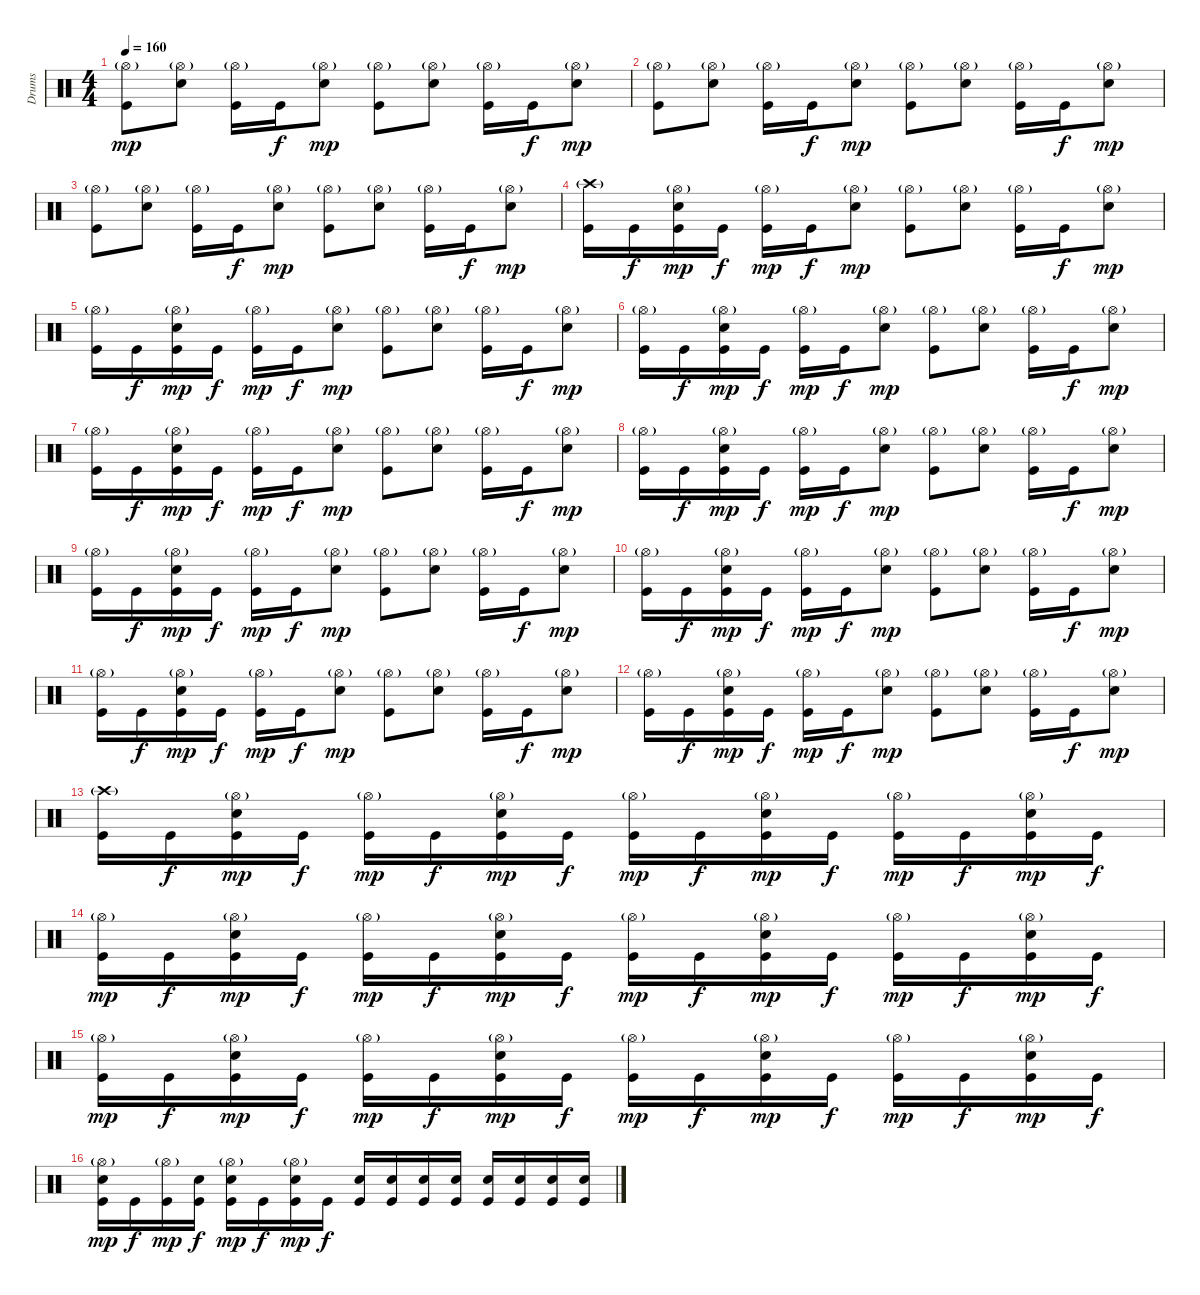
\track ("Drums" "Drums") {instrument percussion}
\staff {score}
\articulation defaults
\ts (4 4)
\tempo 160
\clef neutral
\ks c
("Hi-Hat (open)"{g} "Kick (hit)").8{dy mp} ("Hi-Hat (open)"{g} "Snare (hit) 2").8 ("Hi-Hat (open)"{g} "Kick (hit)").16 "Kick (hit)".16{dy f} ("Hi-Hat (open)"{g} "Snare (hit) 2").8{dy mp} ("Hi-Hat (open)"{g} "Kick (hit)").8 ("Hi-Hat (open)"{g} "Snare (hit) 2").8 ("Hi-Hat (open)"{g} "Kick (hit)").16 "Kick (hit)".16{dy f} ("Hi-Hat (open)"{g} "Snare (hit) 2").8{dy mp} |
("Hi-Hat (open)"{g} "Kick (hit)").8 ("Hi-Hat (open)"{g} "Snare (hit) 2").8 ("Hi-Hat (open)"{g} "Kick (hit)").16 "Kick (hit)".16{dy f} ("Hi-Hat (open)"{g} "Snare (hit) 2").8{dy mp} ("Hi-Hat (open)"{g} "Kick (hit)").8 ("Hi-Hat (open)"{g} "Snare (hit) 2").8 ("Hi-Hat (open)"{g} "Kick (hit)").16 "Kick (hit)".16{dy f} ("Hi-Hat (open)"{g} "Snare (hit) 2").8{dy mp} |
("Hi-Hat (open)"{g} "Kick (hit)").8 ("Hi-Hat (open)"{g} "Snare (hit) 2").8 ("Hi-Hat (open)"{g} "Kick (hit)").16 "Kick (hit)".16{dy f} ("Hi-Hat (open)"{g} "Snare (hit) 2").8{dy mp} ("Hi-Hat (open)"{g} "Kick (hit)").8 ("Hi-Hat (open)"{g} "Snare (hit) 2").8 ("Hi-Hat (open)"{g} "Kick (hit)").16 "Kick (hit)".16{dy f} ("Hi-Hat (open)"{g} "Snare (hit) 2").8{dy mp} |
("Crash high (hit)"{g} "Kick (hit)").16 "Kick (hit)".16{dy f} ("Hi-Hat (open)"{g} "Snare (hit) 2" "Kick (hit)").16{dy mp} "Kick (hit)".16{dy f} ("Hi-Hat (open)"{g} "Kick (hit)").16{dy mp} "Kick (hit)".16{dy f} ("Hi-Hat (open)"{g} "Snare (hit) 2").8{dy mp} ("Hi-Hat (open)"{g} "Kick (hit)").8 ("Hi-Hat (open)"{g} "Snare (hit) 2").8 ("Hi-Hat (open)"{g} "Kick (hit)").16 "Kick (hit)".16{dy f} ("Hi-Hat (open)"{g} "Snare (hit) 2").8{dy mp} |
("Hi-Hat (open)"{g} "Kick (hit)").16 "Kick (hit)".16{dy f} ("Hi-Hat (open)"{g} "Snare (hit) 2" "Kick (hit)").16{dy mp} "Kick (hit)".16{dy f} ("Hi-Hat (open)"{g} "Kick (hit)").16{dy mp} "Kick (hit)".16{dy f} ("Hi-Hat (open)"{g} "Snare (hit) 2").8{dy mp} ("Hi-Hat (open)"{g} "Kick (hit)").8 ("Hi-Hat (open)"{g} "Snare (hit) 2").8 ("Hi-Hat (open)"{g} "Kick (hit)").16 "Kick (hit)".16{dy f} ("Hi-Hat (open)"{g} "Snare (hit) 2").8{dy mp} |
("Hi-Hat (open)"{g} "Kick (hit)").16 "Kick (hit)".16{dy f} ("Hi-Hat (open)"{g} "Snare (hit) 2" "Kick (hit)").16{dy mp} "Kick (hit)".16{dy f} ("Hi-Hat (open)"{g} "Kick (hit)").16{dy mp} "Kick (hit)".16{dy f} ("Hi-Hat (open)"{g} "Snare (hit) 2").8{dy mp} ("Hi-Hat (open)"{g} "Kick (hit)").8 ("Hi-Hat (open)"{g} "Snare (hit) 2").8 ("Hi-Hat (open)"{g} "Kick (hit)").16 "Kick (hit)".16{dy f} ("Hi-Hat (open)"{g} "Snare (hit) 2").8{dy mp} |
("Hi-Hat (open)"{g} "Kick (hit)").16 "Kick (hit)".16{dy f} ("Hi-Hat (open)"{g} "Snare (hit) 2" "Kick (hit)").16{dy mp} "Kick (hit)".16{dy f} ("Hi-Hat (open)"{g} "Kick (hit)").16{dy mp} "Kick (hit)".16{dy f} ("Hi-Hat (open)"{g} "Snare (hit) 2").8{dy mp} ("Hi-Hat (open)"{g} "Kick (hit)").8 ("Hi-Hat (open)"{g} "Snare (hit) 2").8 ("Hi-Hat (open)"{g} "Kick (hit)").16 "Kick (hit)".16{dy f} ("Hi-Hat (open)"{g} "Snare (hit) 2").8{dy mp} |
("Hi-Hat (open)"{g} "Kick (hit)").16 "Kick (hit)".16{dy f} ("Hi-Hat (open)"{g} "Snare (hit) 2" "Kick (hit)").16{dy mp} "Kick (hit)".16{dy f} ("Hi-Hat (open)"{g} "Kick (hit)").16{dy mp} "Kick (hit)".16{dy f} ("Hi-Hat (open)"{g} "Snare (hit) 2").8{dy mp} ("Hi-Hat (open)"{g} "Kick (hit)").8 ("Hi-Hat (open)"{g} "Snare (hit) 2").8 ("Hi-Hat (open)"{g} "Kick (hit)").16 "Kick (hit)".16{dy f} ("Hi-Hat (open)"{g} "Snare (hit) 2").8{dy mp} |
("Hi-Hat (open)"{g} "Kick (hit)").16 "Kick (hit)".16{dy f} ("Hi-Hat (open)"{g} "Snare (hit) 2" "Kick (hit)").16{dy mp} "Kick (hit)".16{dy f} ("Hi-Hat (open)"{g} "Kick (hit)").16{dy mp} "Kick (hit)".16{dy f} ("Hi-Hat (open)"{g} "Snare (hit) 2").8{dy mp} ("Hi-Hat (open)"{g} "Kick (hit)").8 ("Hi-Hat (open)"{g} "Snare (hit) 2").8 ("Hi-Hat (open)"{g} "Kick (hit)").16 "Kick (hit)".16{dy f} ("Hi-Hat (open)"{g} "Snare (hit) 2").8{dy mp} |
("Hi-Hat (open)"{g} "Kick (hit)").16 "Kick (hit)".16{dy f} ("Hi-Hat (open)"{g} "Snare (hit) 2" "Kick (hit)").16{dy mp} "Kick (hit)".16{dy f} ("Hi-Hat (open)"{g} "Kick (hit)").16{dy mp} "Kick (hit)".16{dy f} ("Hi-Hat (open)"{g} "Snare (hit) 2").8{dy mp} ("Hi-Hat (open)"{g} "Kick (hit)").8 ("Hi-Hat (open)"{g} "Snare (hit) 2").8 ("Hi-Hat (open)"{g} "Kick (hit)").16 "Kick (hit)".16{dy f} ("Hi-Hat (open)"{g} "Snare (hit) 2").8{dy mp} |
("Hi-Hat (open)"{g} "Kick (hit)").16 "Kick (hit)".16{dy f} ("Hi-Hat (open)"{g} "Snare (hit) 2" "Kick (hit)").16{dy mp} "Kick (hit)".16{dy f} ("Hi-Hat (open)"{g} "Kick (hit)").16{dy mp} "Kick (hit)".16{dy f} ("Hi-Hat (open)"{g} "Snare (hit) 2").8{dy mp} ("Hi-Hat (open)"{g} "Kick (hit)").8 ("Hi-Hat (open)"{g} "Snare (hit) 2").8 ("Hi-Hat (open)"{g} "Kick (hit)").16 "Kick (hit)".16{dy f} ("Hi-Hat (open)"{g} "Snare (hit) 2").8{dy mp} |
("Hi-Hat (open)"{g} "Kick (hit)").16 "Kick (hit)".16{dy f} ("Hi-Hat (open)"{g} "Snare (hit) 2" "Kick (hit)").16{dy mp} "Kick (hit)".16{dy f} ("Hi-Hat (open)"{g} "Kick (hit)").16{dy mp} "Kick (hit)".16{dy f} ("Hi-Hat (open)"{g} "Snare (hit) 2").8{dy mp} ("Hi-Hat (open)"{g} "Kick (hit)").8 ("Hi-Hat (open)"{g} "Snare (hit) 2").8 ("Hi-Hat (open)"{g} "Kick (hit)").16 "Kick (hit)".16{dy f} ("Hi-Hat (open)"{g} "Snare (hit) 2").8{dy mp} |
("Crash high (hit)"{g} "Kick (hit)").16 "Kick (hit)".16{dy f} ("Hi-Hat (open)"{g} "Snare (hit) 2" "Kick (hit)").16{dy mp} "Kick (hit)".16{dy f} ("Hi-Hat (open)"{g} "Kick (hit)").16{dy mp} "Kick (hit)".16{dy f} ("Hi-Hat (open)"{g} "Snare (hit) 2" "Kick (hit)").16{dy mp} "Kick (hit)".16{dy f} ("Hi-Hat (open)"{g} "Kick (hit)").16{dy mp} "Kick (hit)".16{dy f} ("Hi-Hat (open)"{g} "Snare (hit) 2" "Kick (hit)").16{dy mp} "Kick (hit)".16{dy f} ("Hi-Hat (open)"{g} "Kick (hit)").16{dy mp} "Kick (hit)".16{dy f} ("Hi-Hat (open)"{g} "Snare (hit) 2" "Kick (hit)").16{dy mp} "Kick (hit)".16{dy f} |
("Hi-Hat (open)"{g} "Kick (hit)").16{dy mp} "Kick (hit)".16{dy f} ("Hi-Hat (open)"{g} "Snare (hit) 2" "Kick (hit)").16{dy mp} "Kick (hit)".16{dy f} ("Hi-Hat (open)"{g} "Kick (hit)").16{dy mp} "Kick (hit)".16{dy f} ("Hi-Hat (open)"{g} "Snare (hit) 2" "Kick (hit)").16{dy mp} "Kick (hit)".16{dy f} ("Hi-Hat (open)"{g} "Kick (hit)").16{dy mp} "Kick (hit)".16{dy f} ("Hi-Hat (open)"{g} "Snare (hit) 2" "Kick (hit)").16{dy mp} "Kick (hit)".16{dy f} ("Hi-Hat (open)"{g} "Kick (hit)").16{dy mp} "Kick (hit)".16{dy f} ("Hi-Hat (open)"{g} "Snare (hit) 2" "Kick (hit)").16{dy mp} "Kick (hit)".16{dy f} |
("Hi-Hat (open)"{g} "Kick (hit)").16{dy mp} "Kick (hit)".16{dy f} ("Hi-Hat (open)"{g} "Snare (hit) 2" "Kick (hit)").16{dy mp} "Kick (hit)".16{dy f} ("Hi-Hat (open)"{g} "Kick (hit)").16{dy mp} "Kick (hit)".16{dy f} ("Hi-Hat (open)"{g} "Snare (hit) 2" "Kick (hit)").16{dy mp} "Kick (hit)".16{dy f} ("Hi-Hat (open)"{g} "Kick (hit)").16{dy mp} "Kick (hit)".16{dy f} ("Hi-Hat (open)"{g} "Snare (hit) 2" "Kick (hit)").16{dy mp} "Kick (hit)".16{dy f} ("Hi-Hat (open)"{g} "Kick (hit)").16{dy mp} "Kick (hit)".16{dy f} ("Hi-Hat (open)"{g} "Snare (hit) 2" "Kick (hit)").16{dy mp} "Kick (hit)".16{dy f} |
("Hi-Hat (open)"{g} "Electric Snare (hit)" "Kick (hit)").16{dy mp} "Kick (hit)".16{dy f} ("Hi-Hat (open)"{g} "Kick (hit)").16{dy mp} ("Snare (hit) 2" "Kick (hit)").16{dy f} ("Hi-Hat (open)"{g} "Electric Snare (hit)" "Kick (hit)").16{dy mp} "Kick (hit)".16{dy f} ("Hi-Hat (open)"{g} "Electric Snare (hit)" "Kick (hit)").16{dy mp} "Kick (hit)".16{dy f} ("Electric Snare (hit)" "Kick (hit)").16 ("Electric Snare (hit)" "Kick (hit)").16 ("Snare (hit) 2" "Kick (hit)").16 ("Snare (hit) 2" "Kick (hit)").16 ("Electric Snare (hit)" "Kick (hit)").16 ("Electric Snare (hit)" "Kick (hit)").16 ("Electric Snare (hit)" "Kick (hit)").16 ("Electric Snare (hit)" "Kick (hit)").16
